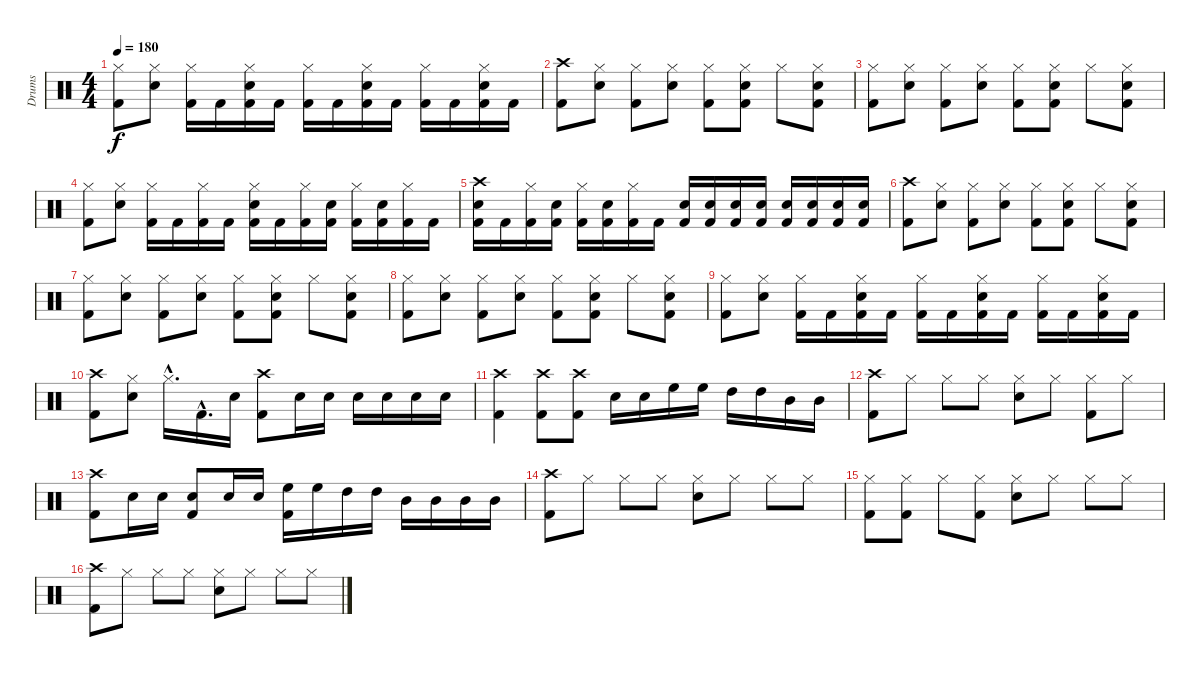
\track ("Drums" "Drums") {instrument percussion}
\staff {score}
\articulation defaults
\ts (4 4)
\tempo 180
\clef neutral
\ks c
("Hi-Hat (closed)" "Kick (hit) 2").8{dy f} ("Hi-Hat (closed)" "Snare (hit) 2").8 ("Hi-Hat (closed)" "Kick (hit) 2").16 "Kick (hit) 2".16 ("Hi-Hat (closed)" "Snare (hit) 2" "Kick (hit) 2").16 "Kick (hit) 2".16 ("Hi-Hat (closed)" "Kick (hit) 2").16 "Kick (hit) 2".16 ("Hi-Hat (closed)" "Snare (hit) 2" "Kick (hit) 2").16 "Kick (hit) 2".16 ("Hi-Hat (closed)" "Kick (hit) 2").16 "Kick (hit) 2".16 ("Hi-Hat (closed)" "Snare (hit) 2" "Kick (hit) 2").16 "Kick (hit) 2".16 |
("Crash high (hit)" "Kick (hit) 2").8 ("Hi-Hat (closed)" "Snare (hit) 2").8 ("Hi-Hat (closed)" "Kick (hit) 2").8 ("Hi-Hat (closed)" "Snare (hit) 2").8 ("Hi-Hat (closed)" "Kick (hit) 2").8 ("Hi-Hat (closed)" "Snare (hit) 2" "Kick (hit) 2").8 "Hi-Hat (closed)".8 ("Hi-Hat (closed)" "Snare (hit) 2" "Kick (hit) 2").8 |
("Hi-Hat (closed)" "Kick (hit) 2").8 ("Hi-Hat (closed)" "Snare (hit) 2").8 ("Hi-Hat (closed)" "Kick (hit) 2").8 ("Hi-Hat (closed)" "Snare (hit) 2").8 ("Hi-Hat (closed)" "Kick (hit) 2").8 ("Hi-Hat (closed)" "Snare (hit) 2" "Kick (hit) 2").8 "Hi-Hat (closed)".8 ("Hi-Hat (closed)" "Snare (hit) 2" "Kick (hit) 2").8 |
("Hi-Hat (closed)" "Kick (hit) 2").8 ("Hi-Hat (closed)" "Snare (hit) 2").8 ("Hi-Hat (closed)" "Kick (hit) 2").16 "Kick (hit) 2".16 ("Hi-Hat (closed)" "Kick (hit) 2").16 "Kick (hit) 2".16 ("Hi-Hat (closed)" "Snare (hit) 2" "Kick (hit) 2").16 "Kick (hit) 2".16 ("Hi-Hat (closed)" "Kick (hit) 2").16 ("Snare (hit) 2" "Kick (hit) 2").16 ("Hi-Hat (closed)" "Kick (hit) 2").16 ("Snare (hit) 2" "Kick (hit) 2").16 ("Hi-Hat (closed)" "Kick (hit) 2").16 "Kick (hit) 2".16 |
("Crash high (hit)" "Snare (hit) 2" "Kick (hit) 2").16 "Kick (hit) 2".16 ("Hi-Hat (closed)" "Kick (hit) 2").16 ("Snare (hit) 2" "Kick (hit) 2").16 ("Hi-Hat (closed)" "Kick (hit) 2").16 ("Snare (hit) 2" "Kick (hit) 2").16 ("Hi-Hat (closed)" "Kick (hit) 2").16 "Kick (hit) 2".16 ("Snare (hit) 2" "Kick (hit) 2").16 ("Snare (hit) 2" "Kick (hit) 2").16 ("Snare (hit) 2" "Kick (hit) 2").16 ("Snare (hit) 2" "Kick (hit) 2").16 ("Snare (hit) 2" "Kick (hit) 2").16 ("Snare (hit) 2" "Kick (hit) 2").16 ("Snare (hit) 2" "Kick (hit) 2").16 ("Snare (hit) 2" "Kick (hit) 2").16 |
("Crash high (hit)" "Kick (hit) 2").8 ("Hi-Hat (closed)" "Snare (hit) 2").8 ("Hi-Hat (closed)" "Kick (hit) 2").8 ("Hi-Hat (closed)" "Snare (hit) 2").8 ("Hi-Hat (closed)" "Kick (hit) 2").8 ("Hi-Hat (closed)" "Snare (hit) 2" "Kick (hit) 2").8 "Hi-Hat (closed)".8 ("Hi-Hat (closed)" "Snare (hit) 2" "Kick (hit) 2").8 |
("Hi-Hat (closed)" "Kick (hit) 2").8 ("Hi-Hat (closed)" "Snare (hit) 2").8 ("Hi-Hat (closed)" "Kick (hit) 2").8 ("Hi-Hat (closed)" "Snare (hit) 2").8 ("Hi-Hat (closed)" "Kick (hit) 2").8 ("Hi-Hat (closed)" "Snare (hit) 2" "Kick (hit) 2").8 "Hi-Hat (closed)".8 ("Hi-Hat (closed)" "Snare (hit) 2" "Kick (hit) 2").8 |
("Hi-Hat (closed)" "Kick (hit) 2").8 ("Hi-Hat (closed)" "Snare (hit) 2").8 ("Hi-Hat (closed)" "Kick (hit) 2").8 ("Hi-Hat (closed)" "Snare (hit) 2").8 ("Hi-Hat (closed)" "Kick (hit) 2").8 ("Hi-Hat (closed)" "Snare (hit) 2" "Kick (hit) 2").8 "Hi-Hat (closed)".8 ("Hi-Hat (closed)" "Snare (hit) 2" "Kick (hit) 2").8 |
("Hi-Hat (closed)" "Kick (hit) 2").8 ("Hi-Hat (closed)" "Snare (hit) 2").8 ("Hi-Hat (closed)" "Kick (hit) 2").16 "Kick (hit) 2".16 ("Hi-Hat (closed)" "Snare (hit) 2" "Kick (hit) 2").16 "Kick (hit) 2".16 ("Hi-Hat (closed)" "Kick (hit) 2").16 "Kick (hit) 2".16 ("Hi-Hat (closed)" "Snare (hit) 2" "Kick (hit) 2").16 "Kick (hit) 2".16 ("Hi-Hat (closed)" "Kick (hit) 2").16 "Kick (hit) 2".16 ("Hi-Hat (closed)" "Snare (hit) 2" "Kick (hit) 2").16 "Kick (hit) 2".16 |
("Crash high (hit)" "Kick (hit) 2").8 ("Hi-Hat (closed)" "Snare (hit) 2").8 "Hi-Hat (closed)"{hac}.16{d} "Kick (hit) 2"{hac}.16{d} "Snare (hit) 2".16 ("Crash high (hit)" "Kick (hit) 2").8 "Snare (hit) 2".16 "Snare (hit) 2".16 "Snare (hit) 2".16 "Snare (hit) 2".16 "Snare (hit) 2".16 "Snare (hit) 2".16 |
("Crash high (hit)" "Kick (hit) 2").4 ("Crash high (hit)" "Kick (hit) 2").8 ("Crash high (hit)" "Kick (hit) 2").8 "Snare (hit) 2".16 "Snare (hit) 2".16 "High Floor Tom (hit)".16 "High Floor Tom (hit)".16 "High Tom (hit)".16 "High Tom (hit)".16 "Mid Tom (hit)".16 "Mid Tom (hit)".16 |
("Crash high (hit)" "Kick (hit) 2").8 "Hi-Hat (closed)".8 "Hi-Hat (closed)".8 "Hi-Hat (closed)".8 ("Hi-Hat (closed)" "Snare (hit) 2").8 "Hi-Hat (closed)".8 ("Hi-Hat (closed)" "Kick (hit) 2").8 "Hi-Hat (closed)".8 |
("Crash high (hit)" "Kick (hit) 2").8 "Snare (hit) 2".16 "Snare (hit) 2".16 ("Snare (hit) 2" "Kick (hit) 2").8 "Snare (hit) 2".16 "Snare (hit) 2".16 ("High Floor Tom (hit)" "Kick (hit) 2").16 "High Floor Tom (hit)".16 "High Tom (hit)".16 "High Tom (hit)".16 "Mid Tom (hit)".16 "Mid Tom (hit)".16 "Mid Tom (hit)".16 "Mid Tom (hit)".16 |
("Crash high (hit)" "Kick (hit) 2").8 "Hi-Hat (closed)".8 "Hi-Hat (closed)".8 "Hi-Hat (closed)".8 ("Hi-Hat (closed)" "Snare (hit) 2").8 "Hi-Hat (closed)".8 "Hi-Hat (closed)".8 "Hi-Hat (closed)".8 |
("Hi-Hat (closed)" "Kick (hit) 2").8 ("Hi-Hat (closed)" "Kick (hit) 2").8 "Hi-Hat (closed)".8 ("Hi-Hat (closed)" "Kick (hit) 2").8 ("Hi-Hat (closed)" "Snare (hit) 2").8 "Hi-Hat (closed)".8 "Hi-Hat (closed)".8 "Hi-Hat (closed)".8 |
("Crash high (hit)" "Kick (hit) 2").8 "Hi-Hat (closed)".8 "Hi-Hat (closed)".8 "Hi-Hat (closed)".8 ("Hi-Hat (closed)" "Snare (hit) 2").8 "Hi-Hat (closed)".8 "Hi-Hat (closed)".8 "Hi-Hat (closed)".8
